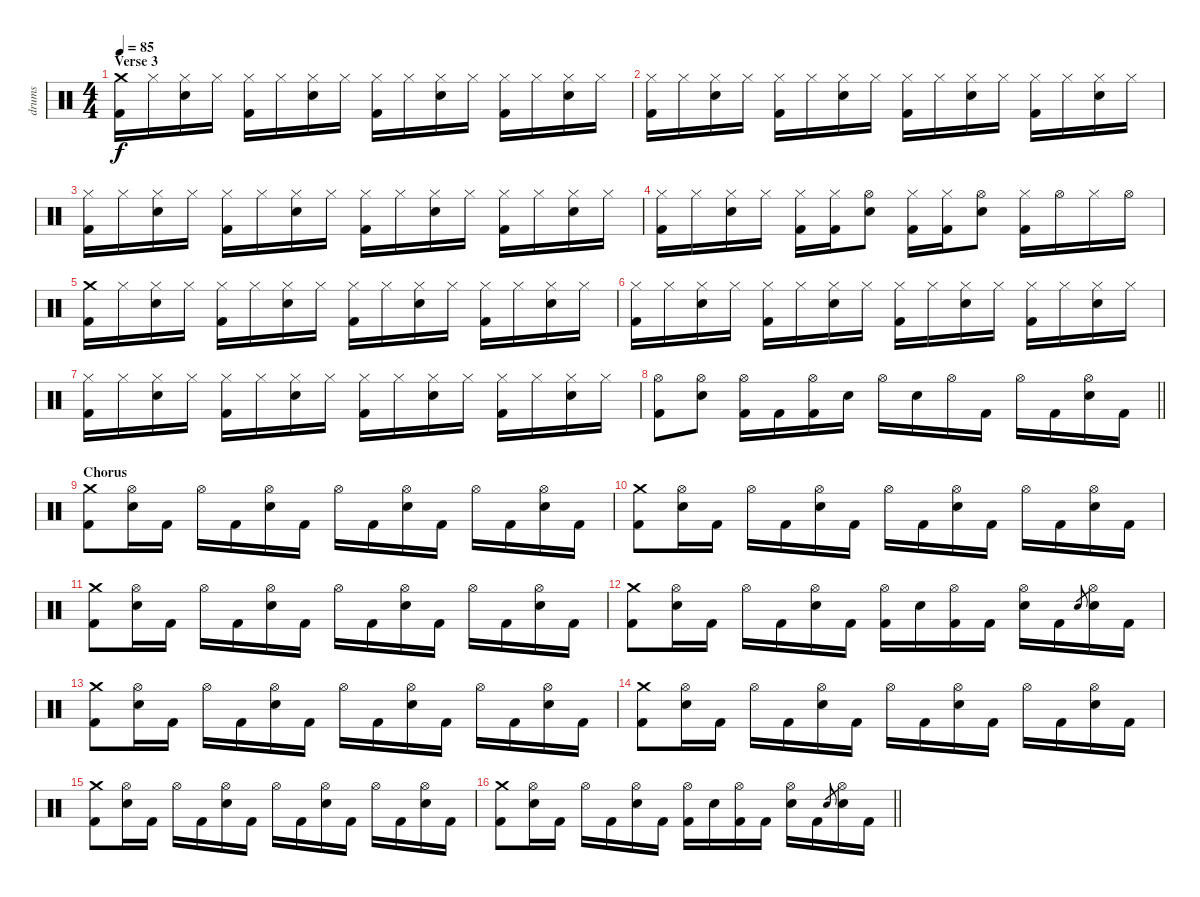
\track ("drums" "drums") {instrument percussion}
\staff {score}
\articulation defaults
\ts (4 4)
\section ("" "Verse 3")
\tempo 85
\clef neutral
\ks c
("Crash medium (hit)" "Kick (hit) 2").16{dy f} "Hi-Hat (closed)".16 ("Hi-Hat (closed)" "Electric Snare (hit)").16 "Hi-Hat (closed)".16 ("Hi-Hat (closed)" "Kick (hit) 2").16 "Hi-Hat (closed)".16 ("Hi-Hat (closed)" "Electric Snare (hit)").16 "Hi-Hat (closed)".16 ("Hi-Hat (closed)" "Kick (hit) 2").16 "Hi-Hat (closed)".16 ("Hi-Hat (closed)" "Electric Snare (hit)").16 "Hi-Hat (closed)".16 ("Hi-Hat (closed)" "Kick (hit) 2").16 "Hi-Hat (closed)".16 ("Hi-Hat (closed)" "Electric Snare (hit)").16 "Hi-Hat (closed)".16 |
("Hi-Hat (closed)" "Kick (hit) 2").16 "Hi-Hat (closed)".16 ("Hi-Hat (closed)" "Electric Snare (hit)").16 "Hi-Hat (closed)".16 ("Hi-Hat (closed)" "Kick (hit) 2").16 "Hi-Hat (closed)".16 ("Hi-Hat (closed)" "Electric Snare (hit)").16 "Hi-Hat (closed)".16 ("Hi-Hat (closed)" "Kick (hit) 2").16 "Hi-Hat (closed)".16 ("Hi-Hat (closed)" "Electric Snare (hit)").16 "Hi-Hat (closed)".16 ("Hi-Hat (closed)" "Kick (hit) 2").16 "Hi-Hat (closed)".16 ("Hi-Hat (closed)" "Electric Snare (hit)").16 "Hi-Hat (closed)".16 |
("Hi-Hat (closed)" "Kick (hit) 2").16 "Hi-Hat (closed)".16 ("Hi-Hat (closed)" "Electric Snare (hit)").16 "Hi-Hat (closed)".16 ("Hi-Hat (closed)" "Kick (hit) 2").16 "Hi-Hat (closed)".16 ("Hi-Hat (closed)" "Electric Snare (hit)").16 "Hi-Hat (closed)".16 ("Hi-Hat (closed)" "Kick (hit) 2").16 "Hi-Hat (closed)".16 ("Hi-Hat (closed)" "Electric Snare (hit)").16 "Hi-Hat (closed)".16 ("Hi-Hat (closed)" "Kick (hit) 2").16 "Hi-Hat (closed)".16 ("Hi-Hat (closed)" "Electric Snare (hit)").16 "Hi-Hat (closed)".16 |
("Hi-Hat (closed)" "Kick (hit) 2").16 "Hi-Hat (closed)".16 ("Hi-Hat (closed)" "Electric Snare (hit)").16 "Hi-Hat (closed)".16 ("Hi-Hat (closed)" "Kick (hit) 2").16 ("Hi-Hat (closed)" "Kick (hit) 2").16 ("Hi-Hat (open)" "Electric Snare (hit)").8 ("Hi-Hat (closed)" "Kick (hit) 2").16 ("Hi-Hat (closed)" "Kick (hit) 2").16 ("Hi-Hat (open)" "Electric Snare (hit)").8 ("Hi-Hat (closed)" "Kick (hit) 2").16 "Hi-Hat (open)".16 "Hi-Hat (closed)".16 "Hi-Hat (open)".16 |
("Crash medium (hit)" "Kick (hit) 2").16 "Hi-Hat (closed)".16 ("Hi-Hat (closed)" "Electric Snare (hit)").16 "Hi-Hat (closed)".16 ("Hi-Hat (closed)" "Kick (hit) 2").16 "Hi-Hat (closed)".16 ("Hi-Hat (closed)" "Electric Snare (hit)").16 "Hi-Hat (closed)".16 ("Hi-Hat (closed)" "Kick (hit) 2").16 "Hi-Hat (closed)".16 ("Hi-Hat (closed)" "Electric Snare (hit)").16 "Hi-Hat (closed)".16 ("Hi-Hat (closed)" "Kick (hit) 2").16 "Hi-Hat (closed)".16 ("Hi-Hat (closed)" "Electric Snare (hit)").16 "Hi-Hat (closed)".16 |
("Hi-Hat (closed)" "Kick (hit) 2").16 "Hi-Hat (closed)".16 ("Hi-Hat (closed)" "Electric Snare (hit)").16 "Hi-Hat (closed)".16 ("Hi-Hat (closed)" "Kick (hit) 2").16 "Hi-Hat (closed)".16 ("Hi-Hat (closed)" "Electric Snare (hit)").16 "Hi-Hat (closed)".16 ("Hi-Hat (closed)" "Kick (hit) 2").16 "Hi-Hat (closed)".16 ("Hi-Hat (closed)" "Electric Snare (hit)").16 "Hi-Hat (closed)".16 ("Hi-Hat (closed)" "Kick (hit) 2").16 "Hi-Hat (closed)".16 ("Hi-Hat (closed)" "Electric Snare (hit)").16 "Hi-Hat (closed)".16 |
("Hi-Hat (closed)" "Kick (hit) 2").16 "Hi-Hat (closed)".16 ("Hi-Hat (closed)" "Electric Snare (hit)").16 "Hi-Hat (closed)".16 ("Hi-Hat (closed)" "Kick (hit) 2").16 "Hi-Hat (closed)".16 ("Hi-Hat (closed)" "Electric Snare (hit)").16 "Hi-Hat (closed)".16 ("Hi-Hat (closed)" "Kick (hit) 2").16 "Hi-Hat (closed)".16 ("Hi-Hat (closed)" "Electric Snare (hit)").16 "Hi-Hat (closed)".16 ("Hi-Hat (closed)" "Kick (hit) 2").16 "Hi-Hat (closed)".16 ("Hi-Hat (closed)" "Electric Snare (hit)").16 "Hi-Hat (closed)".16 |
\barLineRight lightlight
("Hi-Hat (open)" "Kick (hit) 2").8 ("Hi-Hat (open)" "Electric Snare (hit)").8 ("Hi-Hat (open)" "Kick (hit) 2").16 "Kick (hit) 2".16 ("Hi-Hat (open)" "Kick (hit) 2").16 "Electric Snare (hit)".16 "Hi-Hat (open)".16 "Electric Snare (hit)".16 "Hi-Hat (open)".16 "Kick (hit) 2".16 "Hi-Hat (open)".16 "Kick (hit) 2".16 ("Hi-Hat (open)" "Electric Snare (hit)").16 "Kick (hit) 2".16 |
\section ("" "Chorus")
("Crash medium (hit)" "Kick (hit) 2").8 ("Hi-Hat (open)" "Electric Snare (hit)").16 "Kick (hit) 2".16 "Hi-Hat (open)".16 "Kick (hit) 2".16 ("Hi-Hat (open)" "Electric Snare (hit)").16 "Kick (hit) 2".16 "Hi-Hat (open)".16 "Kick (hit) 2".16 ("Hi-Hat (open)" "Electric Snare (hit)").16 "Kick (hit) 2".16 "Hi-Hat (open)".16 "Kick (hit) 2".16 ("Hi-Hat (open)" "Electric Snare (hit)").16 "Kick (hit) 2".16 |
("Crash medium (hit)" "Kick (hit) 2").8 ("Hi-Hat (open)" "Electric Snare (hit)").16 "Kick (hit) 2".16 "Hi-Hat (open)".16 "Kick (hit) 2".16 ("Hi-Hat (open)" "Electric Snare (hit)").16 "Kick (hit) 2".16 "Hi-Hat (open)".16 "Kick (hit) 2".16 ("Hi-Hat (open)" "Electric Snare (hit)").16 "Kick (hit) 2".16 "Hi-Hat (open)".16 "Kick (hit) 2".16 ("Hi-Hat (open)" "Electric Snare (hit)").16 "Kick (hit) 2".16 |
("Crash medium (hit)" "Kick (hit) 2").8 ("Hi-Hat (open)" "Electric Snare (hit)").16 "Kick (hit) 2".16 "Hi-Hat (open)".16 "Kick (hit) 2".16 ("Hi-Hat (open)" "Electric Snare (hit)").16 "Kick (hit) 2".16 "Hi-Hat (open)".16 "Kick (hit) 2".16 ("Hi-Hat (open)" "Electric Snare (hit)").16 "Kick (hit) 2".16 "Hi-Hat (open)".16 "Kick (hit) 2".16 ("Hi-Hat (open)" "Electric Snare (hit)").16 "Kick (hit) 2".16 |
("Crash medium (hit)" "Kick (hit) 2").8 ("Hi-Hat (open)" "Electric Snare (hit)").16 "Kick (hit) 2".16 "Hi-Hat (open)".16 "Kick (hit) 2".16 ("Hi-Hat (open)" "Electric Snare (hit)").16 "Kick (hit) 2".16 ("Hi-Hat (open)" "Kick (hit) 2").16 "Electric Snare (hit)".16 ("Hi-Hat (open)" "Kick (hit) 2").16 "Kick (hit) 2".16 ("Hi-Hat (open)" "Electric Snare (hit)").16 "Kick (hit) 2".16 "Electric Snare (hit)".8{gr} ("Hi-Hat (open)" "Electric Snare (hit)").16 "Kick (hit) 2".16 |
("Crash medium (hit)" "Kick (hit) 2").8 ("Hi-Hat (open)" "Electric Snare (hit)").16 "Kick (hit) 2".16 "Hi-Hat (open)".16 "Kick (hit) 2".16 ("Hi-Hat (open)" "Electric Snare (hit)").16 "Kick (hit) 2".16 "Hi-Hat (open)".16 "Kick (hit) 2".16 ("Hi-Hat (open)" "Electric Snare (hit)").16 "Kick (hit) 2".16 "Hi-Hat (open)".16 "Kick (hit) 2".16 ("Hi-Hat (open)" "Electric Snare (hit)").16 "Kick (hit) 2".16 |
("Crash medium (hit)" "Kick (hit) 2").8 ("Hi-Hat (open)" "Electric Snare (hit)").16 "Kick (hit) 2".16 "Hi-Hat (open)".16 "Kick (hit) 2".16 ("Hi-Hat (open)" "Electric Snare (hit)").16 "Kick (hit) 2".16 "Hi-Hat (open)".16 "Kick (hit) 2".16 ("Hi-Hat (open)" "Electric Snare (hit)").16 "Kick (hit) 2".16 "Hi-Hat (open)".16 "Kick (hit) 2".16 ("Hi-Hat (open)" "Electric Snare (hit)").16 "Kick (hit) 2".16 |
("Crash medium (hit)" "Kick (hit) 2").8 ("Hi-Hat (open)" "Electric Snare (hit)").16 "Kick (hit) 2".16 "Hi-Hat (open)".16 "Kick (hit) 2".16 ("Hi-Hat (open)" "Electric Snare (hit)").16 "Kick (hit) 2".16 "Hi-Hat (open)".16 "Kick (hit) 2".16 ("Hi-Hat (open)" "Electric Snare (hit)").16 "Kick (hit) 2".16 "Hi-Hat (open)".16 "Kick (hit) 2".16 ("Hi-Hat (open)" "Electric Snare (hit)").16 "Kick (hit) 2".16 |
\barLineRight lightlight
("Crash medium (hit)" "Kick (hit) 2").8 ("Hi-Hat (open)" "Electric Snare (hit)").16 "Kick (hit) 2".16 "Hi-Hat (open)".16 "Kick (hit) 2".16 ("Hi-Hat (open)" "Electric Snare (hit)").16 "Kick (hit) 2".16 ("Hi-Hat (open)" "Kick (hit) 2").16 "Electric Snare (hit)".16 ("Hi-Hat (open)" "Kick (hit) 2").16 "Kick (hit) 2".16 ("Hi-Hat (open)" "Electric Snare (hit)").16 "Kick (hit) 2".16 "Electric Snare (hit)".8{gr} ("Hi-Hat (open)" "Electric Snare (hit)").16 "Kick (hit) 2".16
